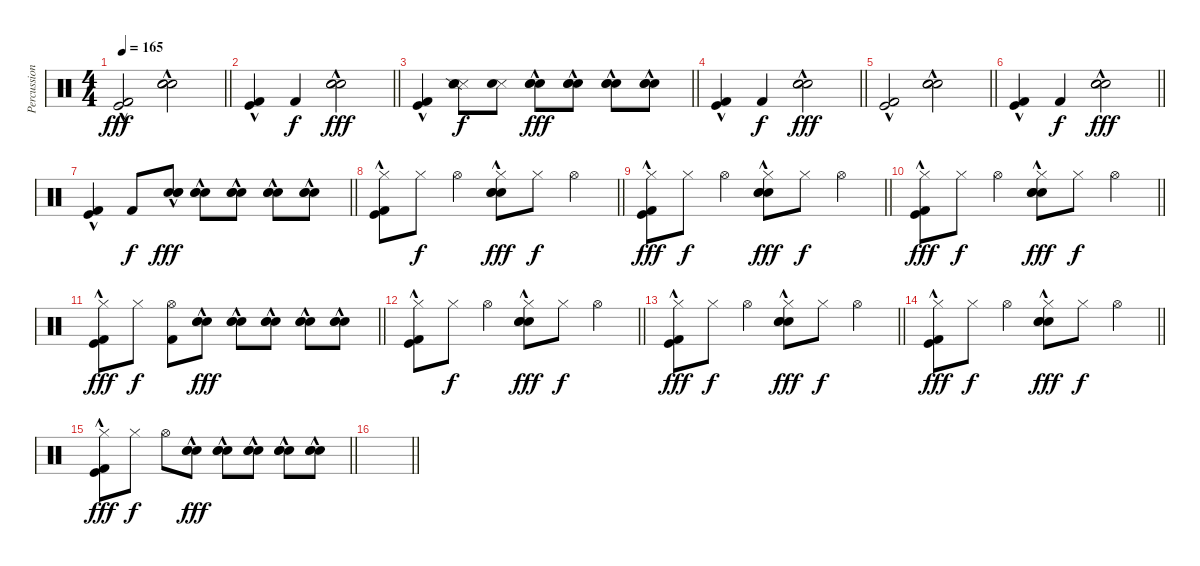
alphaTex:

\track ("Percussion" "Percussion") {instrument percussion}
\staff {score}
\articulation defaults
\ts (4 4)
\tempo 165
\clef neutral
\barLineRight lightlight
\ks c
("Kick (hit) 2"{hac} "Kick (hit)"{hac}).2{dy fff} ("Snare (hit) 2" "Hand Clap (hit)"{hac} "Electric Snare (hit)").2 |
\barLineRight lightlight
("Kick (hit) 2"{hac} "Kick (hit)"{hac}).4 "Kick (hit) 2".4{dy f} ("Snare (hit) 2" "Hand Clap (hit)"{hac} "Electric Snare (hit)").2{dy fff} |
\barLineRight lightlight
("Kick (hit) 2"{hac} "Kick (hit)"{hac}).4 ("Snare (side stick) 3" "Electric Snare (hit)" "Snare (side stick) 2").8{dy f} ("Snare (side stick) 3" "Electric Snare (hit)").8 ("Snare (hit) 2"{hac} "Hand Clap (hit)"{hac} "Electric Snare (hit)"{hac}).8{dy fff} ("Snare (hit) 2"{hac} "Hand Clap (hit)"{hac} "Electric Snare (hit)"{hac}).8 ("Snare (hit) 2"{hac} "Hand Clap (hit)"{hac} "Electric Snare (hit)"{hac}).8 ("Snare (hit) 2"{hac} "Hand Clap (hit)"{hac} "Electric Snare (hit)"{hac}).8 |
\barLineRight lightlight
("Kick (hit) 2"{hac} "Kick (hit)"{hac}).4 "Kick (hit) 2".4{dy f} ("Snare (hit) 2" "Hand Clap (hit)"{hac} "Electric Snare (hit)").2{dy fff} |
\barLineRight lightlight
("Kick (hit) 2"{hac} "Kick (hit)"{hac}).2 ("Snare (hit) 2" "Hand Clap (hit)"{hac} "Electric Snare (hit)").2 |
\barLineRight lightlight
("Kick (hit) 2"{hac} "Kick (hit)"{hac}).4 "Kick (hit) 2".4{dy f} ("Snare (hit) 2" "Hand Clap (hit)"{hac} "Electric Snare (hit)").2{dy fff} |
\barLineRight lightlight
("Kick (hit) 2"{hac} "Kick (hit)"{hac}).4 "Kick (hit) 2".8{dy f} ("Snare (hit) 2"{hac} "Hand Clap (hit)"{hac} "Electric Snare (hit)"{hac}).8{dy fff} ("Snare (hit) 2"{hac} "Hand Clap (hit)"{hac} "Electric Snare (hit)"{hac}).8 ("Snare (hit) 2"{hac} "Hand Clap (hit)"{hac} "Electric Snare (hit)"{hac}).8 ("Snare (hit) 2"{hac} "Hand Clap (hit)"{hac} "Electric Snare (hit)"{hac}).8 ("Snare (hit) 2"{hac} "Hand Clap (hit)"{hac} "Electric Snare (hit)"{hac}).8 |
\barLineRight lightlight
("Hi-Hat (closed)" "Kick (hit) 2"{hac} "Kick (hit)"{hac}).8 "Hi-Hat (closed)".8{dy f} "Hi-Hat (open)".4 ("Hi-Hat (closed)" "Snare (hit) 2" "Hand Clap (hit)"{hac} "Electric Snare (hit)").8{dy fff} "Hi-Hat (closed)".8{dy f} "Hi-Hat (open)".4 |
\barLineRight lightlight
("Hi-Hat (closed)" "Kick (hit) 2"{hac} "Kick (hit)"{hac}).8{dy fff} "Hi-Hat (closed)".8{dy f} "Hi-Hat (open)".4 ("Hi-Hat (closed)" "Snare (hit) 2" "Hand Clap (hit)"{hac} "Electric Snare (hit)").8{dy fff} "Hi-Hat (closed)".8{dy f} "Hi-Hat (open)".4 |
\barLineRight lightlight
("Hi-Hat (closed)" "Kick (hit) 2"{hac} "Kick (hit)"{hac}).8{dy fff} "Hi-Hat (closed)".8{dy f} "Hi-Hat (open)".4 ("Hi-Hat (closed)" "Snare (hit) 2" "Hand Clap (hit)"{hac} "Electric Snare (hit)").8{dy fff} "Hi-Hat (closed)".8{dy f} "Hi-Hat (open)".4 |
\barLineRight lightlight
("Hi-Hat (closed)" "Kick (hit) 2"{hac} "Kick (hit)"{hac}).8{dy fff} "Hi-Hat (closed)".8{dy f} ("Hi-Hat (open)" "Kick (hit) 2").8 ("Snare (hit) 2"{hac} "Hand Clap (hit)"{hac} "Electric Snare (hit)"{hac}).8{dy fff} ("Snare (hit) 2"{hac} "Hand Clap (hit)"{hac} "Electric Snare (hit)"{hac}).8 ("Snare (hit) 2"{hac} "Hand Clap (hit)"{hac} "Electric Snare (hit)"{hac}).8 ("Snare (hit) 2"{hac} "Hand Clap (hit)"{hac} "Electric Snare (hit)"{hac}).8 ("Snare (hit) 2"{hac} "Hand Clap (hit)"{hac} "Electric Snare (hit)"{hac}).8 |
\barLineRight lightlight
("Hi-Hat (closed)" "Kick (hit) 2"{hac} "Kick (hit)"{hac}).8 "Hi-Hat (closed)".8{dy f} "Hi-Hat (open)".4 ("Hi-Hat (closed)" "Snare (hit) 2" "Hand Clap (hit)"{hac} "Electric Snare (hit)").8{dy fff} "Hi-Hat (closed)".8{dy f} "Hi-Hat (open)".4 |
\barLineRight lightlight
("Hi-Hat (closed)" "Kick (hit) 2"{hac} "Kick (hit)"{hac}).8{dy fff} "Hi-Hat (closed)".8{dy f} "Hi-Hat (open)".4 ("Hi-Hat (closed)" "Snare (hit) 2" "Hand Clap (hit)"{hac} "Electric Snare (hit)").8{dy fff} "Hi-Hat (closed)".8{dy f} "Hi-Hat (open)".4 |
\barLineRight lightlight
("Hi-Hat (closed)" "Kick (hit) 2"{hac} "Kick (hit)"{hac}).8{dy fff} "Hi-Hat (closed)".8{dy f} "Hi-Hat (open)".4 ("Hi-Hat (closed)" "Snare (hit) 2" "Hand Clap (hit)"{hac} "Electric Snare (hit)").8{dy fff} "Hi-Hat (closed)".8{dy f} "Hi-Hat (open)".4 |
\barLineRight lightlight
("Hi-Hat (closed)" "Kick (hit) 2"{hac} "Kick (hit)"{hac}).8{dy fff} "Hi-Hat (closed)".8{dy f} "Hi-Hat (open)".8 ("Snare (hit) 2"{hac} "Hand Clap (hit)"{hac} "Electric Snare (hit)"{hac}).8{dy fff} ("Snare (hit) 2"{hac} "Hand Clap (hit)"{hac} "Electric Snare (hit)"{hac}).8 ("Snare (hit) 2"{hac} "Hand Clap (hit)"{hac} "Electric Snare (hit)"{hac}).8 ("Snare (hit) 2"{hac} "Hand Clap (hit)"{hac} "Electric Snare (hit)"{hac}).8 ("Snare (hit) 2"{hac} "Hand Clap (hit)"{hac} "Electric Snare (hit)"{hac}).8 |
\barLineRight lightlight
